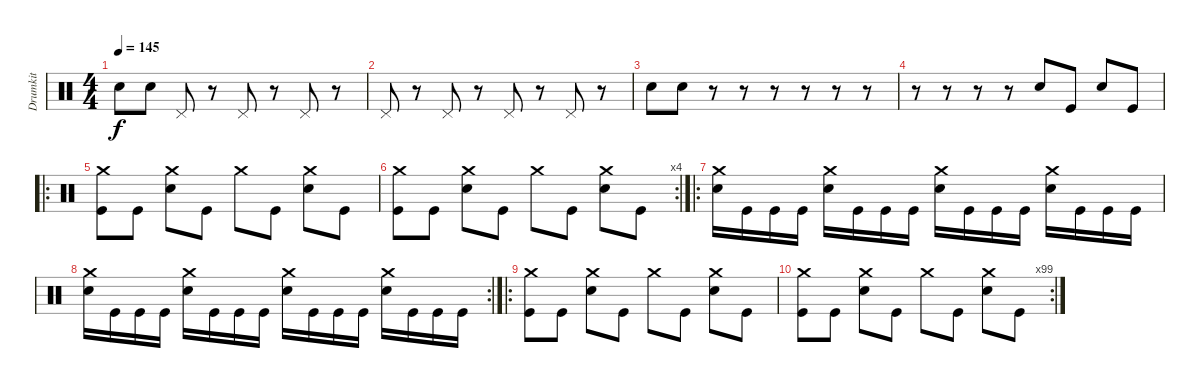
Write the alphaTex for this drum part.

\track ("Drumkit" "Drumkit") {instrument percussion}
\staff {score}
\articulation defaults
\ts (4 4)
\tempo 145
\clef neutral
\ks c "Snare (hit) 2".8{dy f} "Snare (hit) 2".8 "Pedal Hi-Hat (hit)".8
r.8 "Pedal Hi-Hat (hit)".8 r.8 "Pedal Hi-Hat (hit)".8 r.8 |
"Pedal Hi-Hat (hit)".8 r.8 "Pedal Hi-Hat (hit)".8 r.8 "Pedal Hi-Hat (hit)".8 r.8 "Pedal Hi-Hat (hit)".8 r.8 |
"Snare (hit) 2".8 "Snare (hit) 2".8 r.8 r.8 r.8 r.8 r.8 r.8 |
r.8 r.8 r.8 r.8 "Snare (hit) 2".8 "Kick (hit)".8 "Snare (hit) 2".8 "Kick (hit)".8 |
\ro
("Kick (hit)" "Crash medium (hit)").8 "Kick (hit)".8 ("Snare (hit) 2" "Crash medium (hit)").8 "Kick (hit)".8 "Crash medium (hit)".8 "Kick (hit)".8 ("Snare (hit) 2" "Crash medium (hit)").8 "Kick (hit)".8 |
\rc 4
("Kick (hit)" "Crash medium (hit)").8 "Kick (hit)".8 ("Snare (hit) 2" "Crash medium (hit)").8 "Kick (hit)".8 "Crash medium (hit)".8 "Kick (hit)".8 ("Snare (hit) 2" "Crash medium (hit)").8 "Kick (hit)".8 |
\ro
("Snare (hit) 2" "Crash medium (hit)").16 "Kick (hit)".16 "Kick (hit)".16 "Kick (hit)".16 ("Snare (hit) 2" "Crash medium (hit)").16 "Kick (hit)".16 "Kick (hit)".16 "Kick (hit)".16 ("Snare (hit) 2" "Crash medium (hit)").16 "Kick (hit)".16 "Kick (hit)".16 "Kick (hit)".16 ("Snare (hit) 2" "Crash medium (hit)").16 "Kick (hit)".16 "Kick (hit)".16 "Kick (hit)".16 |
\rc 2
("Snare (hit) 2" "Crash medium (hit)").16 "Kick (hit)".16 "Kick (hit)".16 "Kick (hit)".16 ("Snare (hit) 2" "Crash medium (hit)").16 "Kick (hit)".16 "Kick (hit)".16 "Kick (hit)".16 ("Snare (hit) 2" "Crash medium (hit)").16 "Kick (hit)".16 "Kick (hit)".16 "Kick (hit)".16 ("Snare (hit) 2" "Crash medium (hit)").16 "Kick (hit)".16 "Kick (hit)".16 "Kick (hit)".16 |
\ro
("Kick (hit)" "Crash medium (hit)").8 "Kick (hit)".8 ("Snare (hit) 2" "Crash medium (hit)").8 "Kick (hit)".8 "Crash medium (hit)".8 "Kick (hit)".8 ("Snare (hit) 2" "Crash medium (hit)").8 "Kick (hit)".8 |
\rc 99
("Kick (hit)" "Crash medium (hit)").8 "Kick (hit)".8 ("Snare (hit) 2" "Crash medium (hit)").8 "Kick (hit)".8 "Crash medium (hit)".8 "Kick (hit)".8 ("Snare (hit) 2" "Crash medium (hit)").8 "Kick (hit)".8
